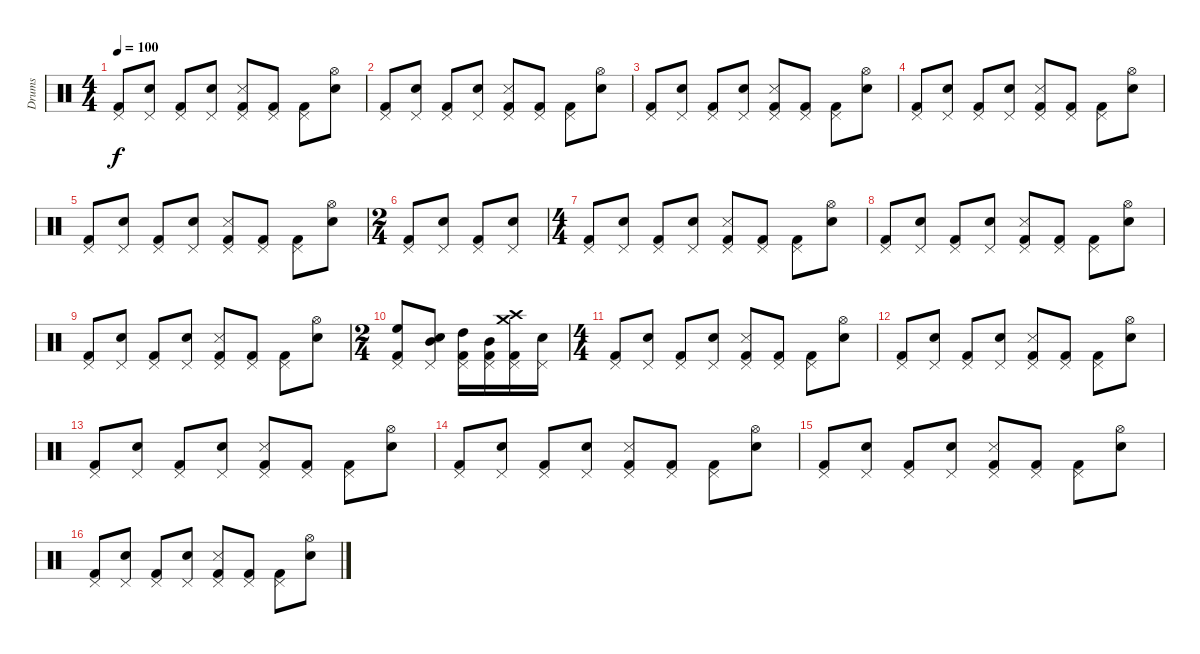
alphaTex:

\track ("Drums" "Drums") {instrument percussion}
\staff {score}
\articulation defaults
\ts (4 4)
\tempo 100
\clef neutral
\ks c
("Pedal Hi-Hat (hit)" "Kick (hit) 2").8{dy f} ("Pedal Hi-Hat (hit)" "Snare (hit) 2").8 ("Pedal Hi-Hat (hit)" "Kick (hit) 2").8 ("Pedal Hi-Hat (hit)" "Snare (hit) 2").8 ("Pedal Hi-Hat (hit)" "Kick (hit) 2" "Snare (side stick) 3").8 ("Pedal Hi-Hat (hit)" "Kick (hit) 2").8 ("Pedal Hi-Hat (hit)" "Kick (hit) 2").8 ("Hi-Hat (open)" "Snare (hit) 2").8 |
("Pedal Hi-Hat (hit)" "Kick (hit) 2").8 ("Pedal Hi-Hat (hit)" "Snare (hit) 2").8 ("Pedal Hi-Hat (hit)" "Kick (hit) 2").8 ("Pedal Hi-Hat (hit)" "Snare (hit) 2").8 ("Pedal Hi-Hat (hit)" "Kick (hit) 2" "Snare (side stick) 3").8 ("Pedal Hi-Hat (hit)" "Kick (hit) 2").8 ("Pedal Hi-Hat (hit)" "Kick (hit) 2").8 ("Hi-Hat (open)" "Snare (hit) 2").8 |
("Pedal Hi-Hat (hit)" "Kick (hit) 2").8 ("Pedal Hi-Hat (hit)" "Snare (hit) 2").8 ("Pedal Hi-Hat (hit)" "Kick (hit) 2").8 ("Pedal Hi-Hat (hit)" "Snare (hit) 2").8 ("Pedal Hi-Hat (hit)" "Kick (hit) 2" "Snare (side stick) 3").8 ("Pedal Hi-Hat (hit)" "Kick (hit) 2").8 ("Pedal Hi-Hat (hit)" "Kick (hit) 2").8 ("Hi-Hat (open)" "Snare (hit) 2").8 |
("Pedal Hi-Hat (hit)" "Kick (hit) 2").8 ("Pedal Hi-Hat (hit)" "Snare (hit) 2").8 ("Pedal Hi-Hat (hit)" "Kick (hit) 2").8 ("Pedal Hi-Hat (hit)" "Snare (hit) 2").8 ("Pedal Hi-Hat (hit)" "Kick (hit) 2" "Snare (side stick) 3").8 ("Pedal Hi-Hat (hit)" "Kick (hit) 2").8 ("Pedal Hi-Hat (hit)" "Kick (hit) 2").8 ("Hi-Hat (open)" "Snare (hit) 2").8 |
("Pedal Hi-Hat (hit)" "Kick (hit) 2").8 ("Pedal Hi-Hat (hit)" "Snare (hit) 2").8 ("Pedal Hi-Hat (hit)" "Kick (hit) 2").8 ("Pedal Hi-Hat (hit)" "Snare (hit) 2").8 ("Pedal Hi-Hat (hit)" "Kick (hit) 2" "Snare (side stick) 3").8 ("Pedal Hi-Hat (hit)" "Kick (hit) 2").8 ("Pedal Hi-Hat (hit)" "Kick (hit) 2").8 ("Hi-Hat (open)" "Snare (hit) 2").8 |
\ts (2 4)
("Pedal Hi-Hat (hit)" "Kick (hit) 2").8 ("Pedal Hi-Hat (hit)" "Snare (hit) 2").8 ("Pedal Hi-Hat (hit)" "Kick (hit) 2").8 ("Pedal Hi-Hat (hit)" "Snare (hit) 2").8 |
\ts (4 4)
("Pedal Hi-Hat (hit)" "Kick (hit) 2").8 ("Pedal Hi-Hat (hit)" "Snare (hit) 2").8 ("Pedal Hi-Hat (hit)" "Kick (hit) 2").8 ("Pedal Hi-Hat (hit)" "Snare (hit) 2").8 ("Pedal Hi-Hat (hit)" "Kick (hit) 2" "Snare (side stick) 3").8 ("Pedal Hi-Hat (hit)" "Kick (hit) 2").8 ("Pedal Hi-Hat (hit)" "Kick (hit) 2").8 ("Hi-Hat (open)" "Snare (hit) 2").8 |
("Pedal Hi-Hat (hit)" "Kick (hit) 2").8 ("Pedal Hi-Hat (hit)" "Snare (hit) 2").8 ("Pedal Hi-Hat (hit)" "Kick (hit) 2").8 ("Pedal Hi-Hat (hit)" "Snare (hit) 2").8 ("Pedal Hi-Hat (hit)" "Kick (hit) 2" "Snare (side stick) 3").8 ("Pedal Hi-Hat (hit)" "Kick (hit) 2").8 ("Pedal Hi-Hat (hit)" "Kick (hit) 2").8 ("Hi-Hat (open)" "Snare (hit) 2").8 |
("Pedal Hi-Hat (hit)" "Kick (hit) 2").8 ("Pedal Hi-Hat (hit)" "Snare (hit) 2").8 ("Pedal Hi-Hat (hit)" "Kick (hit) 2").8 ("Pedal Hi-Hat (hit)" "Snare (hit) 2").8 ("Pedal Hi-Hat (hit)" "Kick (hit) 2" "Snare (side stick) 3").8 ("Pedal Hi-Hat (hit)" "Kick (hit) 2").8 ("Pedal Hi-Hat (hit)" "Kick (hit) 2").8 ("Hi-Hat (open)" "Snare (hit) 2").8 |
\ts (2 4)
("Pedal Hi-Hat (hit)" "Kick (hit) 2" "High Floor Tom (hit)").8 ("Pedal Hi-Hat (hit)" "Snare (hit) 2" "Mid Tom (hit)").8 ("Pedal Hi-Hat (hit)" "Kick (hit) 2" "High Tom (hit)").16 ("Pedal Hi-Hat (hit)" "Kick (hit) 2" "Mid Tom (hit)").16 ("Pedal Hi-Hat (hit)" "Kick (hit) 2" "Crash medium (hit)" "Crash high (hit)").16 ("Pedal Hi-Hat (hit)" "Snare (hit) 2").16 |
\ts (4 4)
("Pedal Hi-Hat (hit)" "Kick (hit) 2").8 ("Pedal Hi-Hat (hit)" "Snare (hit) 2").8 ("Pedal Hi-Hat (hit)" "Kick (hit) 2").8 ("Pedal Hi-Hat (hit)" "Snare (hit) 2").8 ("Pedal Hi-Hat (hit)" "Kick (hit) 2" "Snare (side stick) 3").8 ("Pedal Hi-Hat (hit)" "Kick (hit) 2").8 ("Pedal Hi-Hat (hit)" "Kick (hit) 2").8 ("Hi-Hat (open)" "Snare (hit) 2").8 |
("Pedal Hi-Hat (hit)" "Kick (hit) 2").8 ("Pedal Hi-Hat (hit)" "Snare (hit) 2").8 ("Pedal Hi-Hat (hit)" "Kick (hit) 2").8 ("Pedal Hi-Hat (hit)" "Snare (hit) 2").8 ("Pedal Hi-Hat (hit)" "Kick (hit) 2" "Snare (side stick) 3").8 ("Pedal Hi-Hat (hit)" "Kick (hit) 2").8 ("Pedal Hi-Hat (hit)" "Kick (hit) 2").8 ("Hi-Hat (open)" "Snare (hit) 2").8 |
("Pedal Hi-Hat (hit)" "Kick (hit) 2").8 ("Pedal Hi-Hat (hit)" "Snare (hit) 2").8 ("Pedal Hi-Hat (hit)" "Kick (hit) 2").8 ("Pedal Hi-Hat (hit)" "Snare (hit) 2").8 ("Pedal Hi-Hat (hit)" "Kick (hit) 2" "Snare (side stick) 3").8 ("Pedal Hi-Hat (hit)" "Kick (hit) 2").8 ("Pedal Hi-Hat (hit)" "Kick (hit) 2").8 ("Hi-Hat (open)" "Snare (hit) 2").8 |
("Pedal Hi-Hat (hit)" "Kick (hit) 2").8 ("Pedal Hi-Hat (hit)" "Snare (hit) 2").8 ("Pedal Hi-Hat (hit)" "Kick (hit) 2").8 ("Pedal Hi-Hat (hit)" "Snare (hit) 2").8 ("Pedal Hi-Hat (hit)" "Kick (hit) 2" "Snare (side stick) 3").8 ("Pedal Hi-Hat (hit)" "Kick (hit) 2").8 ("Pedal Hi-Hat (hit)" "Kick (hit) 2").8 ("Hi-Hat (open)" "Snare (hit) 2").8 |
("Pedal Hi-Hat (hit)" "Kick (hit) 2").8 ("Pedal Hi-Hat (hit)" "Snare (hit) 2").8 ("Pedal Hi-Hat (hit)" "Kick (hit) 2").8 ("Pedal Hi-Hat (hit)" "Snare (hit) 2").8 ("Pedal Hi-Hat (hit)" "Kick (hit) 2" "Snare (side stick) 3").8 ("Pedal Hi-Hat (hit)" "Kick (hit) 2").8 ("Pedal Hi-Hat (hit)" "Kick (hit) 2").8 ("Hi-Hat (open)" "Snare (hit) 2").8 |
("Pedal Hi-Hat (hit)" "Kick (hit) 2").8 ("Pedal Hi-Hat (hit)" "Snare (hit) 2").8 ("Pedal Hi-Hat (hit)" "Kick (hit) 2").8 ("Pedal Hi-Hat (hit)" "Snare (hit) 2").8 ("Pedal Hi-Hat (hit)" "Kick (hit) 2" "Snare (side stick) 3").8 ("Pedal Hi-Hat (hit)" "Kick (hit) 2").8 ("Pedal Hi-Hat (hit)" "Kick (hit) 2").8 ("Hi-Hat (open)" "Snare (hit) 2").8
